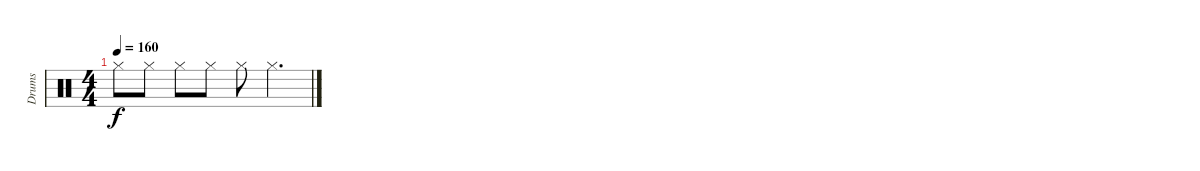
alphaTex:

\track ("Drums" "Drums") {instrument percussion}
\staff {score}
\articulation defaults
\ts (4 4)
\tempo 160
\clef neutral
\ks c "Hi-Hat (closed)".8{dy f} "Hi-Hat (closed)".8 "Hi-Hat (closed)".8 "Hi-Hat (closed)".8 "Hi-Hat (closed)".8 "Hi-Hat (closed)".4{d}
